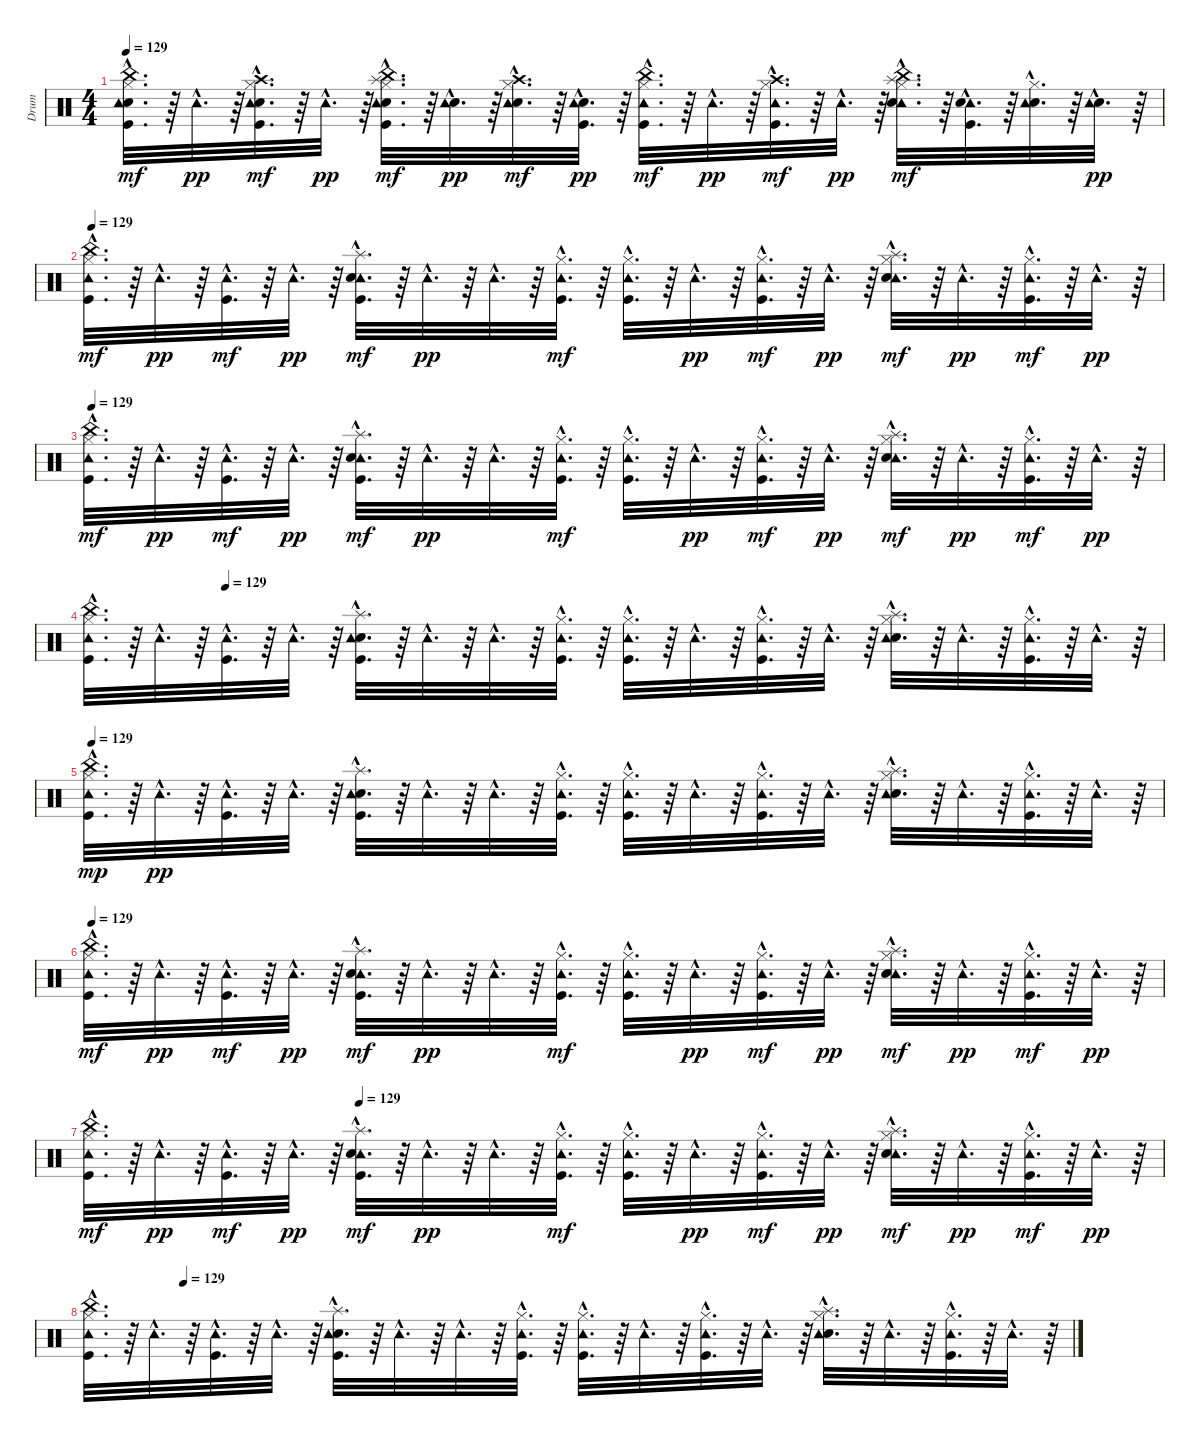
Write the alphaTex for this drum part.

\track ("Drum" "Drum") {instrument percussion}
\staff {score}
\articulation defaults
\ts (4 4)
\tempo 129
\clef neutral
\ks c
("China (hit)"{hac} "Snare (hit) 2"{hac} "Tambourine (hit)"{hac} "Kick (hit)"{hac} "Hi-Hat (closed)"{hac}).32{d dy mf} r.64 "Tambourine (hit)"{hac}.32{d dy pp} r.64 ("Crash high (hit)"{hac} "Snare (hit) 2"{hac} "Kick (hit)"{hac} "Tambourine (hit)"{hac} "Hi-Hat (closed)"{hac}).32{d dy mf} r.64 "Tambourine (hit)"{hac}.32{d dy pp} r.64 ("China (hit)"{hac} "Snare (hit) 2"{hac} "Splash (hit)"{hac} "Kick (hit)"{hac} "Tambourine (hit)"{hac} "Hi-Hat (closed)"{hac}).32{d dy mf} r.64 ("Snare (hit) 2"{hac} "Tambourine (hit)"{hac}).32{d dy pp} r.64 ("Crash high (hit)"{hac} "Snare (hit) 2"{hac} "Tambourine (hit)"{hac} "Hi-Hat (closed)"{hac}).32{d dy mf} r.64 ("Snare (hit) 2"{hac} "Kick (hit)"{hac} "Tambourine (hit)"{hac}).32{d dy pp} r.64 ("China (hit)"{hac} "Tambourine (hit)"{hac} "Hi-Hat (closed)"{hac} "Kick (hit)"{hac}).32{d dy mf} r.64 "Tambourine (hit)"{hac}.32{d dy pp} r.64 ("Crash high (hit)"{hac} "Tambourine (hit)"{hac} "Hi-Hat (closed)"{hac} "Kick (hit)"{hac}).32{d dy mf} r.64 "Tambourine (hit)"{hac}.32{d dy pp} r.64 ("China (hit)"{hac} "Tambourine (hit)"{hac} "Hi-Hat (closed)"{hac} "Snare (hit) 2"{hac} "Splash (hit)"{hac}).32{d dy mf} r.64 ("Tambourine (hit)"{hac} "Snare (hit) 2"{hac} "Kick (hit)"{hac}).32{d} r.64 ("Snare (hit) 2"{hac} "Tambourine (hit)"{hac} "Hi-Hat (closed)"{hac}).32{d} r.64 ("Snare (hit) 2"{hac} "Tambourine (hit)"{hac}).32{d dy pp} r.64 |
\tempo 129
("China (hit)"{hac} "Tambourine (hit)"{hac} "Hi-Hat (closed)"{hac} "Kick (hit)"{hac}).32{d dy mf} r.64 "Tambourine (hit)"{hac}.32{d dy pp} r.64 ("Tambourine (hit)"{hac} "Kick (hit)"{hac}).32{d dy mf} r.64 "Tambourine (hit)"{hac}.32{d dy pp} r.64 ("Tambourine (hit)"{hac} "Kick (hit)"{hac} "Snare (hit) 2"{hac} "Splash (hit)"{hac}).32{d dy mf} r.64 "Tambourine (hit)"{hac}.32{d dy pp} r.64 "Tambourine (hit)"{hac}.32{d} r.64 ("Tambourine (hit)"{hac} "Hi-Hat (closed)"{hac} "Kick (hit)"{hac}).32{d dy mf} r.64 ("Tambourine (hit)"{hac} "Hi-Hat (closed)"{hac} "Kick (hit)"{hac}).32{d} r.64 "Tambourine (hit)"{hac}.32{d dy pp} r.64 ("Tambourine (hit)"{hac} "Hi-Hat (closed)"{hac} "Kick (hit)"{hac}).32{d dy mf} r.64 "Tambourine (hit)"{hac}.32{d dy pp} r.64 ("Tambourine (hit)"{hac} "Hi-Hat (closed)"{hac} "Snare (hit) 2"{hac} "Splash (hit)"{hac}).32{d dy mf} r.64 "Tambourine (hit)"{hac}.32{d dy pp} r.64 ("Tambourine (hit)"{hac} "Hi-Hat (closed)"{hac} "Kick (hit)"{hac}).32{d dy mf} r.64 "Tambourine (hit)"{hac}.32{d dy pp} r.64 |
\tempo 129
("China (hit)"{hac} "Tambourine (hit)"{hac} "Hi-Hat (closed)"{hac} "Kick (hit)"{hac}).32{d dy mf} r.64 "Tambourine (hit)"{hac}.32{d dy pp} r.64 ("Tambourine (hit)"{hac} "Kick (hit)"{hac}).32{d dy mf} r.64 "Tambourine (hit)"{hac}.32{d dy pp} r.64 ("Tambourine (hit)"{hac} "Kick (hit)"{hac} "Snare (hit) 2"{hac} "Splash (hit)"{hac}).32{d dy mf} r.64 "Tambourine (hit)"{hac}.32{d dy pp} r.64 "Tambourine (hit)"{hac}.32{d} r.64 ("Tambourine (hit)"{hac} "Hi-Hat (closed)"{hac} "Kick (hit)"{hac}).32{d dy mf} r.64 ("Tambourine (hit)"{hac} "Hi-Hat (closed)"{hac} "Kick (hit)"{hac}).32{d} r.64 "Tambourine (hit)"{hac}.32{d dy pp} r.64 ("Tambourine (hit)"{hac} "Hi-Hat (closed)"{hac} "Kick (hit)"{hac}).32{d dy mf} r.64 "Tambourine (hit)"{hac}.32{d dy pp} r.64 ("Tambourine (hit)"{hac} "Hi-Hat (closed)"{hac} "Snare (hit) 2"{hac} "Splash (hit)"{hac}).32{d dy mf} r.64 "Tambourine (hit)"{hac}.32{d dy pp} r.64 ("Tambourine (hit)"{hac} "Hi-Hat (closed)"{hac} "Kick (hit)"{hac}).32{d dy mf} r.64 "Tambourine (hit)"{hac}.32{d dy pp} r.64 |
\tempo (129 0.125)
("China (hit)"{hac} "Kick (hit)"{hac} "Hi-Hat (closed)"{hac} "Tambourine (hit)"{hac}).32{d} r.64 "Tambourine (hit)"{hac}.32{d} r.64 ("Kick (hit)"{hac} "Tambourine (hit)"{hac}).32{d} r.64 "Tambourine (hit)"{hac}.32{d} r.64 ("Splash (hit)"{hac} "Snare (hit) 2"{hac} "Kick (hit)"{hac} "Tambourine (hit)"{hac}).32{d} r.64 "Tambourine (hit)"{hac}.32{d} r.64 "Tambourine (hit)"{hac}.32{d} r.64 ("Kick (hit)"{hac} "Hi-Hat (closed)"{hac} "Tambourine (hit)"{hac}).32{d} r.64 ("Kick (hit)"{hac} "Hi-Hat (closed)"{hac} "Tambourine (hit)"{hac}).32{d} r.64 "Tambourine (hit)"{hac}.32{d} r.64 ("Kick (hit)"{hac} "Hi-Hat (closed)"{hac} "Tambourine (hit)"{hac}).32{d} r.64 "Tambourine (hit)"{hac}.32{d} r.64 ("Splash (hit)"{hac} "Snare (hit) 2"{hac} "Hi-Hat (closed)"{hac} "Tambourine (hit)"{hac}).32{d} r.64 "Tambourine (hit)"{hac}.32{d} r.64 ("Kick (hit)"{hac} "Hi-Hat (closed)"{hac} "Tambourine (hit)"{hac}).32{d} r.64 "Tambourine (hit)"{hac}.32{d} r.64 |
\tempo 129
("Kick (hit)"{hac} "Hi-Hat (closed)"{hac} "Tambourine (hit)"{hac} "China (hit)"{hac}).32{d dy mp} r.64 "Tambourine (hit)"{hac}.32{d dy pp} r.64 ("Kick (hit)"{hac} "Tambourine (hit)"{hac}).32{d} r.64 "Tambourine (hit)"{hac}.32{d} r.64 ("Splash (hit)"{hac} "Snare (hit) 2"{hac} "Kick (hit)"{hac} "Tambourine (hit)"{hac}).32{d} r.64 "Tambourine (hit)"{hac}.32{d} r.64 "Tambourine (hit)"{hac}.32{d} r.64 ("Kick (hit)"{hac} "Hi-Hat (closed)"{hac} "Tambourine (hit)"{hac}).32{d} r.64 ("Kick (hit)"{hac} "Hi-Hat (closed)"{hac} "Tambourine (hit)"{hac}).32{d} r.64 "Tambourine (hit)"{hac}.32{d} r.64 ("Kick (hit)"{hac} "Hi-Hat (closed)"{hac} "Tambourine (hit)"{hac}).32{d} r.64 "Tambourine (hit)"{hac}.32{d} r.64 ("Splash (hit)"{hac} "Snare (hit) 2"{hac} "Hi-Hat (closed)"{hac} "Tambourine (hit)"{hac}).32{d} r.64 "Tambourine (hit)"{hac}.32{d} r.64 ("Kick (hit)"{hac} "Hi-Hat (closed)"{hac} "Tambourine (hit)"{hac}).32{d} r.64 "Tambourine (hit)"{hac}.32{d} r.64 |
\tempo 129
("China (hit)"{hac} "Tambourine (hit)"{hac} "Hi-Hat (closed)"{hac} "Kick (hit)"{hac}).32{d dy mf} r.64 "Tambourine (hit)"{hac}.32{d dy pp} r.64 ("Tambourine (hit)"{hac} "Kick (hit)"{hac}).32{d dy mf} r.64 "Tambourine (hit)"{hac}.32{d dy pp} r.64 ("Tambourine (hit)"{hac} "Kick (hit)"{hac} "Snare (hit) 2"{hac} "Splash (hit)"{hac}).32{d dy mf} r.64 "Tambourine (hit)"{hac}.32{d dy pp} r.64 "Tambourine (hit)"{hac}.32{d} r.64 ("Tambourine (hit)"{hac} "Hi-Hat (closed)"{hac} "Kick (hit)"{hac}).32{d dy mf} r.64 ("Tambourine (hit)"{hac} "Hi-Hat (closed)"{hac} "Kick (hit)"{hac}).32{d} r.64 "Tambourine (hit)"{hac}.32{d dy pp} r.64 ("Tambourine (hit)"{hac} "Hi-Hat (closed)"{hac} "Kick (hit)"{hac}).32{d dy mf} r.64 "Tambourine (hit)"{hac}.32{d dy pp} r.64 ("Tambourine (hit)"{hac} "Hi-Hat (closed)"{hac} "Snare (hit) 2"{hac} "Splash (hit)"{hac}).32{d dy mf} r.64 "Tambourine (hit)"{hac}.32{d dy pp} r.64 ("Tambourine (hit)"{hac} "Hi-Hat (closed)"{hac} "Kick (hit)"{hac}).32{d dy mf} r.64 "Tambourine (hit)"{hac}.32{d dy pp} r.64 |
\tempo (129 0.25)
("China (hit)"{hac} "Tambourine (hit)"{hac} "Hi-Hat (closed)"{hac} "Kick (hit)"{hac}).32{d dy mf} r.64 "Tambourine (hit)"{hac}.32{d dy pp} r.64 ("Tambourine (hit)"{hac} "Kick (hit)"{hac}).32{d dy mf} r.64 "Tambourine (hit)"{hac}.32{d dy pp} r.64 ("Tambourine (hit)"{hac} "Kick (hit)"{hac} "Snare (hit) 2"{hac} "Splash (hit)"{hac}).32{d dy mf} r.64 "Tambourine (hit)"{hac}.32{d dy pp} r.64 "Tambourine (hit)"{hac}.32{d} r.64 ("Tambourine (hit)"{hac} "Hi-Hat (closed)"{hac} "Kick (hit)"{hac}).32{d dy mf} r.64 ("Tambourine (hit)"{hac} "Hi-Hat (closed)"{hac} "Kick (hit)"{hac}).32{d} r.64 "Tambourine (hit)"{hac}.32{d dy pp} r.64 ("Tambourine (hit)"{hac} "Hi-Hat (closed)"{hac} "Kick (hit)"{hac}).32{d dy mf} r.64 "Tambourine (hit)"{hac}.32{d dy pp} r.64 ("Tambourine (hit)"{hac} "Hi-Hat (closed)"{hac} "Snare (hit) 2"{hac} "Splash (hit)"{hac}).32{d dy mf} r.64 "Tambourine (hit)"{hac}.32{d dy pp} r.64 ("Tambourine (hit)"{hac} "Hi-Hat (closed)"{hac} "Kick (hit)"{hac}).32{d dy mf} r.64 "Tambourine (hit)"{hac}.32{d dy pp} r.64 |
\tempo (129 0.09375)
("China (hit)"{hac} "Kick (hit)"{hac} "Hi-Hat (closed)"{hac} "Tambourine (hit)"{hac}).32{d} r.64 "Tambourine (hit)"{hac}.32{d} r.64 ("Kick (hit)"{hac} "Tambourine (hit)"{hac}).32{d} r.64 "Tambourine (hit)"{hac}.32{d} r.64 ("Splash (hit)"{hac} "Snare (hit) 2"{hac} "Kick (hit)"{hac} "Tambourine (hit)"{hac}).32{d} r.64 "Tambourine (hit)"{hac}.32{d} r.64 "Tambourine (hit)"{hac}.32{d} r.64 ("Kick (hit)"{hac} "Hi-Hat (closed)"{hac} "Tambourine (hit)"{hac}).32{d} r.64 ("Kick (hit)"{hac} "Hi-Hat (closed)"{hac} "Tambourine (hit)"{hac}).32{d} r.64 "Tambourine (hit)"{hac}.32{d} r.64 ("Kick (hit)"{hac} "Hi-Hat (closed)"{hac} "Tambourine (hit)"{hac}).32{d} r.64 "Tambourine (hit)"{hac}.32{d} r.64 ("Splash (hit)"{hac} "Snare (hit) 2"{hac} "Hi-Hat (closed)"{hac} "Tambourine (hit)"{hac}).32{d} r.64 "Tambourine (hit)"{hac}.32{d} r.64 ("Kick (hit)"{hac} "Hi-Hat (closed)"{hac} "Tambourine (hit)"{hac}).32{d} r.64 "Tambourine (hit)"{hac}.32{d} r.64
